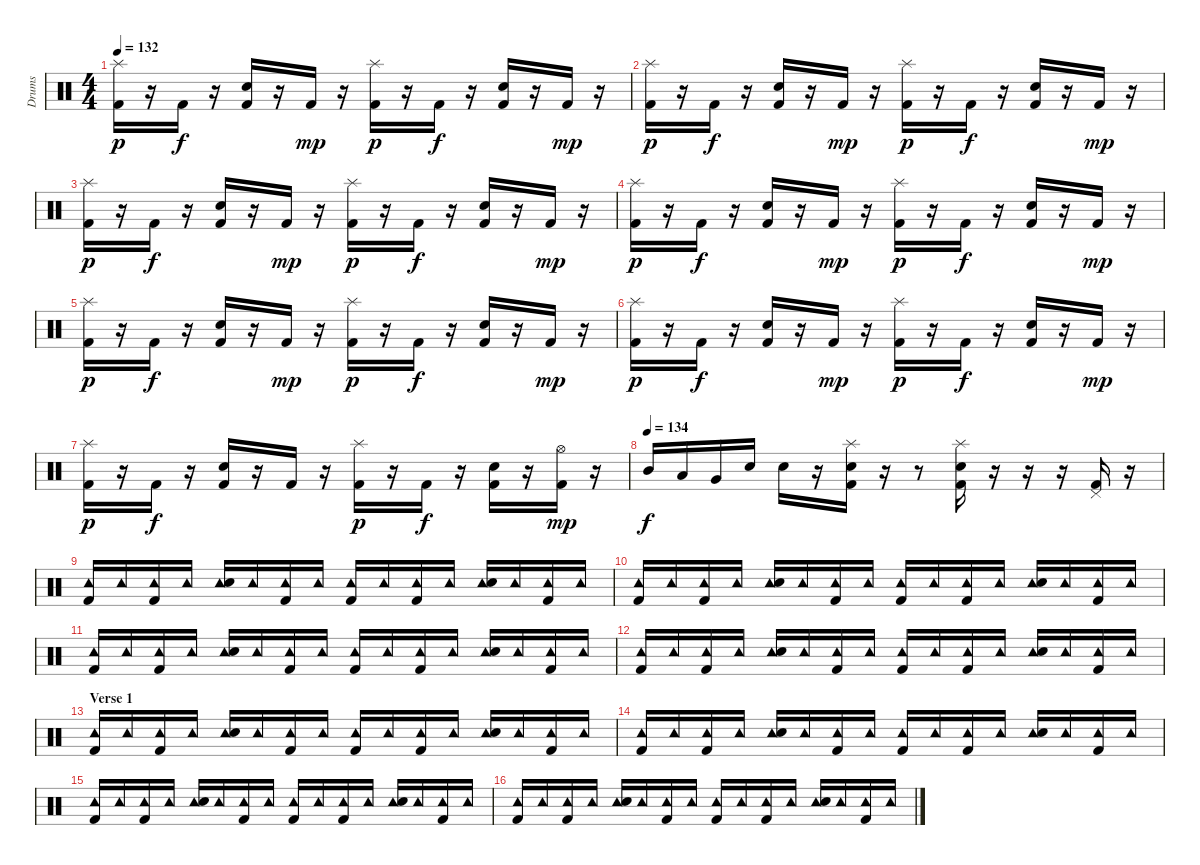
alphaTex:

\track ("Drums" "Drums") {instrument percussion}
\staff {score}
\articulation defaults
\ts (4 4)
\tempo 132
\clef neutral
\ks c
("Splash (hit)" "Kick (hit) 2").16{dy p} r.16 "Kick (hit) 2".16{dy f} r.16 ("Electric Snare (hit)" "Kick (hit) 2").16 r.16 "Kick (hit) 2".16{dy mp} r.16 ("Splash (hit)" "Kick (hit) 2").16{dy p} r.16 "Kick (hit) 2".16{dy f} r.16 ("Electric Snare (hit)" "Kick (hit) 2").16 r.16 "Kick (hit) 2".16{dy mp} r.16 |
("Splash (hit)" "Kick (hit) 2").16{dy p} r.16 "Kick (hit) 2".16{dy f} r.16 ("Electric Snare (hit)" "Kick (hit) 2").16 r.16 "Kick (hit) 2".16{dy mp} r.16 ("Splash (hit)" "Kick (hit) 2").16{dy p} r.16 "Kick (hit) 2".16{dy f} r.16 ("Electric Snare (hit)" "Kick (hit) 2").16 r.16 "Kick (hit) 2".16{dy mp} r.16 |
("Splash (hit)" "Kick (hit) 2").16{dy p} r.16 "Kick (hit) 2".16{dy f} r.16 ("Electric Snare (hit)" "Kick (hit) 2").16 r.16 "Kick (hit) 2".16{dy mp} r.16 ("Splash (hit)" "Kick (hit) 2").16{dy p} r.16 "Kick (hit) 2".16{dy f} r.16 ("Electric Snare (hit)" "Kick (hit) 2").16 r.16 "Kick (hit) 2".16{dy mp} r.16 |
("Splash (hit)" "Kick (hit) 2").16{dy p} r.16 "Kick (hit) 2".16{dy f} r.16 ("Electric Snare (hit)" "Kick (hit) 2").16 r.16 "Kick (hit) 2".16{dy mp} r.16 ("Splash (hit)" "Kick (hit) 2").16{dy p} r.16 "Kick (hit) 2".16{dy f} r.16 ("Electric Snare (hit)" "Kick (hit) 2").16 r.16 "Kick (hit) 2".16{dy mp} r.16 |
("Splash (hit)" "Kick (hit) 2").16{dy p} r.16 "Kick (hit) 2".16{dy f} r.16 ("Electric Snare (hit)" "Kick (hit) 2").16 r.16 "Kick (hit) 2".16{dy mp} r.16 ("Splash (hit)" "Kick (hit) 2").16{dy p} r.16 "Kick (hit) 2".16{dy f} r.16 ("Electric Snare (hit)" "Kick (hit) 2").16 r.16 "Kick (hit) 2".16{dy mp} r.16 |
("Splash (hit)" "Kick (hit) 2").16{dy p} r.16 "Kick (hit) 2".16{dy f} r.16 ("Electric Snare (hit)" "Kick (hit) 2").16 r.16 "Kick (hit) 2".16{dy mp} r.16 ("Splash (hit)" "Kick (hit) 2").16{dy p} r.16 "Kick (hit) 2".16{dy f} r.16 ("Electric Snare (hit)" "Kick (hit) 2").16 r.16 "Kick (hit) 2".16{dy mp} r.16 |
("Splash (hit)" "Kick (hit) 2").16{dy p} r.16 "Kick (hit) 2".16{dy f} r.16 ("Electric Snare (hit)" "Kick (hit) 2").16 r.16 "Kick (hit) 2".16 r.16 ("Splash (hit)" "Kick (hit) 2").16{dy p} r.16 "Kick (hit) 2".16{dy f} r.16 ("Electric Snare (hit)" "Kick (hit) 2").16 r.16 ("Hi-Hat (open)" "Kick (hit) 2").16{dy mp} r.16 |
\tempo (134)
"Mid Tom (hit)".16{dy f} "Low Tom (hit)".16 "Very Low Tom (hit)".16 "Electric Snare (hit)".16 "Snare (hit) 2".16 r.16 ("Splash (hit)" "Electric Snare (hit)" "Kick (hit) 2").16 r.16 r.8 ("Splash (hit)" "Electric Snare (hit)" "Kick (hit) 2").16 r.16 r.16 r.16 ("Pedal Hi-Hat (hit)" "Kick (hit) 2").16 r.16 |
("Tambourine (hit)" "Kick (hit) 2").16 "Tambourine (hit)".16 ("Tambourine (hit)" "Kick (hit) 2").16 "Tambourine (hit)".16 ("Tambourine (hit)" "Electric Snare (hit)").16 "Tambourine (hit)".16 ("Tambourine (hit)" "Kick (hit) 2").16 "Tambourine (hit)".16 ("Tambourine (hit)" "Kick (hit) 2").16 "Tambourine (hit)".16 ("Tambourine (hit)" "Kick (hit) 2").16 "Tambourine (hit)".16 ("Tambourine (hit)" "Electric Snare (hit)").16 "Tambourine (hit)".16 ("Tambourine (hit)" "Kick (hit) 2").16 "Tambourine (hit)".16 |
("Tambourine (hit)" "Kick (hit) 2").16 "Tambourine (hit)".16 ("Tambourine (hit)" "Kick (hit) 2").16 "Tambourine (hit)".16 ("Tambourine (hit)" "Electric Snare (hit)").16 "Tambourine (hit)".16 ("Tambourine (hit)" "Kick (hit) 2").16 "Tambourine (hit)".16 ("Tambourine (hit)" "Kick (hit) 2").16 "Tambourine (hit)".16 ("Tambourine (hit)" "Kick (hit) 2").16 "Tambourine (hit)".16 ("Tambourine (hit)" "Electric Snare (hit)").16 "Tambourine (hit)".16 ("Tambourine (hit)" "Kick (hit) 2").16 "Tambourine (hit)".16 |
("Tambourine (hit)" "Kick (hit) 2").16 "Tambourine (hit)".16 ("Tambourine (hit)" "Kick (hit) 2").16 "Tambourine (hit)".16 ("Tambourine (hit)" "Electric Snare (hit)").16 "Tambourine (hit)".16 ("Tambourine (hit)" "Kick (hit) 2").16 "Tambourine (hit)".16 ("Tambourine (hit)" "Kick (hit) 2").16 "Tambourine (hit)".16 ("Tambourine (hit)" "Kick (hit) 2").16 "Tambourine (hit)".16 ("Tambourine (hit)" "Electric Snare (hit)").16 "Tambourine (hit)".16 ("Tambourine (hit)" "Kick (hit) 2").16 "Tambourine (hit)".16 |
("Tambourine (hit)" "Kick (hit) 2").16 "Tambourine (hit)".16 ("Tambourine (hit)" "Kick (hit) 2").16 "Tambourine (hit)".16 ("Tambourine (hit)" "Electric Snare (hit)").16 "Tambourine (hit)".16 ("Tambourine (hit)" "Kick (hit) 2").16 "Tambourine (hit)".16 ("Tambourine (hit)" "Kick (hit) 2").16 "Tambourine (hit)".16 ("Tambourine (hit)" "Kick (hit) 2").16 "Tambourine (hit)".16 ("Tambourine (hit)" "Electric Snare (hit)").16 "Tambourine (hit)".16 ("Tambourine (hit)" "Kick (hit) 2").16 "Tambourine (hit)".16 |
\section ("" "Verse 1")
("Tambourine (hit)" "Kick (hit) 2").16 "Tambourine (hit)".16 ("Tambourine (hit)" "Kick (hit) 2").16 "Tambourine (hit)".16 ("Tambourine (hit)" "Electric Snare (hit)").16 "Tambourine (hit)".16 ("Tambourine (hit)" "Kick (hit) 2").16 "Tambourine (hit)".16 ("Tambourine (hit)" "Kick (hit) 2").16 "Tambourine (hit)".16 ("Tambourine (hit)" "Kick (hit) 2").16 "Tambourine (hit)".16 ("Tambourine (hit)" "Electric Snare (hit)").16 "Tambourine (hit)".16 ("Tambourine (hit)" "Kick (hit) 2").16 "Tambourine (hit)".16 |
("Tambourine (hit)" "Kick (hit) 2").16 "Tambourine (hit)".16 ("Tambourine (hit)" "Kick (hit) 2").16 "Tambourine (hit)".16 ("Tambourine (hit)" "Electric Snare (hit)").16 "Tambourine (hit)".16 ("Tambourine (hit)" "Kick (hit) 2").16 "Tambourine (hit)".16 ("Tambourine (hit)" "Kick (hit) 2").16 "Tambourine (hit)".16 ("Tambourine (hit)" "Kick (hit) 2").16 "Tambourine (hit)".16 ("Tambourine (hit)" "Electric Snare (hit)").16 "Tambourine (hit)".16 ("Tambourine (hit)" "Kick (hit) 2").16 "Tambourine (hit)".16 |
("Tambourine (hit)" "Kick (hit) 2").16 "Tambourine (hit)".16 ("Tambourine (hit)" "Kick (hit) 2").16 "Tambourine (hit)".16 ("Tambourine (hit)" "Electric Snare (hit)").16 "Tambourine (hit)".16 ("Tambourine (hit)" "Kick (hit) 2").16 "Tambourine (hit)".16 ("Tambourine (hit)" "Kick (hit) 2").16 "Tambourine (hit)".16 ("Tambourine (hit)" "Kick (hit) 2").16 "Tambourine (hit)".16 ("Tambourine (hit)" "Electric Snare (hit)").16 "Tambourine (hit)".16 ("Tambourine (hit)" "Kick (hit) 2").16 "Tambourine (hit)".16 |
("Tambourine (hit)" "Kick (hit) 2").16 "Tambourine (hit)".16 ("Tambourine (hit)" "Kick (hit) 2").16 "Tambourine (hit)".16 ("Tambourine (hit)" "Electric Snare (hit)").16 "Tambourine (hit)".16 ("Tambourine (hit)" "Kick (hit) 2").16 "Tambourine (hit)".16 ("Tambourine (hit)" "Kick (hit) 2").16 "Tambourine (hit)".16 ("Tambourine (hit)" "Kick (hit) 2").16 "Tambourine (hit)".16 ("Tambourine (hit)" "Electric Snare (hit)").16 "Tambourine (hit)".16 ("Tambourine (hit)" "Kick (hit) 2").16 "Tambourine (hit)".16
